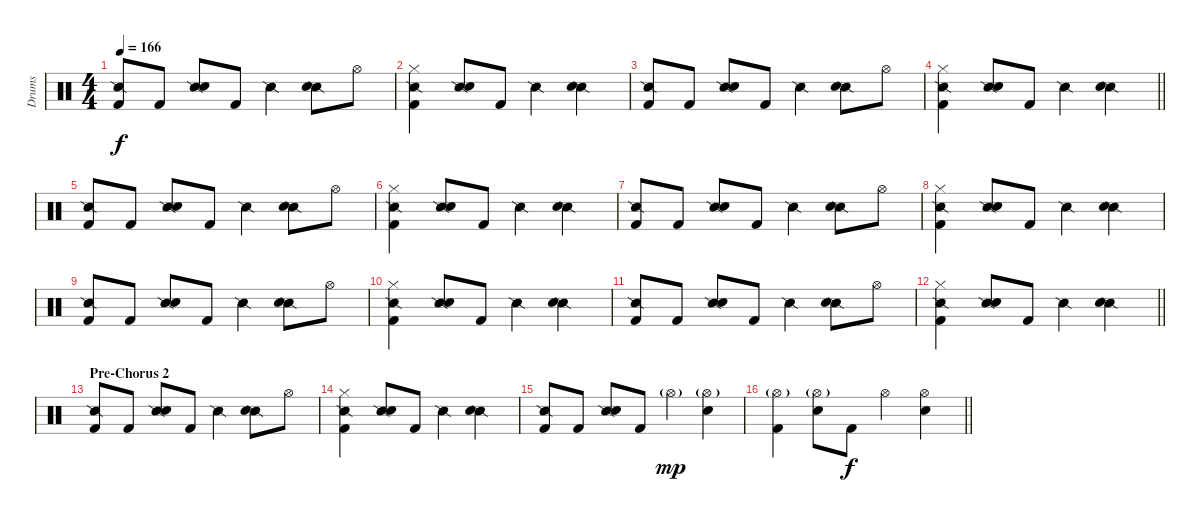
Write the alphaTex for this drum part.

\track ("Drums" "Drums") {instrument percussion}
\staff {score}
\articulation defaults
\ts (4 4)
\tempo 166
\clef neutral
\ks c
("Snare (side stick) 2" "Kick (hit) 2").8{dy f} "Kick (hit) 2".8 ("Snare (side stick) 2" "Electric Snare (hit)").8 "Kick (hit) 2".8 "Snare (side stick) 2".4 ("Snare (side stick) 2" "Electric Snare (hit)").8 "Hi-Hat (open)".8 |
("Snare (side stick) 2" "Hi-Hat (closed)" "Kick (hit) 2").4 ("Snare (side stick) 2" "Electric Snare (hit)").8 "Kick (hit) 2".8 "Snare (side stick) 2".4 ("Snare (side stick) 2" "Electric Snare (hit)").4 |
("Snare (side stick) 2" "Kick (hit) 2").8 "Kick (hit) 2".8 ("Snare (side stick) 2" "Electric Snare (hit)").8 "Kick (hit) 2".8 "Snare (side stick) 2".4 ("Snare (side stick) 2" "Electric Snare (hit)").8 "Hi-Hat (open)".8 |
\barLineRight lightlight
("Snare (side stick) 2" "Hi-Hat (closed)" "Kick (hit) 2").4 ("Snare (side stick) 2" "Electric Snare (hit)").8 "Kick (hit) 2".8 "Snare (side stick) 2".4 ("Snare (side stick) 2" "Electric Snare (hit)").4 |
("Snare (side stick) 2" "Kick (hit) 2").8 "Kick (hit) 2".8 ("Snare (side stick) 2" "Electric Snare (hit)").8 "Kick (hit) 2".8 "Snare (side stick) 2".4 ("Snare (side stick) 2" "Electric Snare (hit)").8 "Hi-Hat (open)".8 |
("Snare (side stick) 2" "Hi-Hat (closed)" "Kick (hit) 2").4 ("Snare (side stick) 2" "Electric Snare (hit)").8 "Kick (hit) 2".8 "Snare (side stick) 2".4 ("Snare (side stick) 2" "Electric Snare (hit)").4 |
("Snare (side stick) 2" "Kick (hit) 2").8 "Kick (hit) 2".8 ("Snare (side stick) 2" "Electric Snare (hit)").8 "Kick (hit) 2".8 "Snare (side stick) 2".4 ("Snare (side stick) 2" "Electric Snare (hit)").8 "Hi-Hat (open)".8 |
("Snare (side stick) 2" "Hi-Hat (closed)" "Kick (hit) 2").4 ("Snare (side stick) 2" "Electric Snare (hit)").8 "Kick (hit) 2".8 "Snare (side stick) 2".4 ("Snare (side stick) 2" "Electric Snare (hit)").4 |
("Snare (side stick) 2" "Kick (hit) 2").8 "Kick (hit) 2".8 ("Snare (side stick) 2" "Electric Snare (hit)").8 "Kick (hit) 2".8 "Snare (side stick) 2".4 ("Snare (side stick) 2" "Electric Snare (hit)").8 "Hi-Hat (open)".8 |
("Snare (side stick) 2" "Hi-Hat (closed)" "Kick (hit) 2").4 ("Snare (side stick) 2" "Electric Snare (hit)").8 "Kick (hit) 2".8 "Snare (side stick) 2".4 ("Snare (side stick) 2" "Electric Snare (hit)").4 |
("Snare (side stick) 2" "Kick (hit) 2").8 "Kick (hit) 2".8 ("Snare (side stick) 2" "Electric Snare (hit)").8 "Kick (hit) 2".8 "Snare (side stick) 2".4 ("Snare (side stick) 2" "Electric Snare (hit)").8 "Hi-Hat (open)".8 |
\barLineRight lightlight
("Snare (side stick) 2" "Hi-Hat (closed)" "Kick (hit) 2").4 ("Snare (side stick) 2" "Electric Snare (hit)").8 "Kick (hit) 2".8 "Snare (side stick) 2".4 ("Snare (side stick) 2" "Electric Snare (hit)").4 |
\section ("" "Pre-Chorus 2")
("Snare (side stick) 2" "Kick (hit) 2").8 "Kick (hit) 2".8 ("Snare (side stick) 2" "Electric Snare (hit)").8 "Kick (hit) 2".8 "Snare (side stick) 2".4 ("Snare (side stick) 2" "Electric Snare (hit)").8 "Hi-Hat (open)".8 |
("Snare (side stick) 2" "Hi-Hat (closed)" "Kick (hit) 2").4 ("Snare (side stick) 2" "Electric Snare (hit)").8 "Kick (hit) 2".8 "Snare (side stick) 2".4 ("Snare (side stick) 2" "Electric Snare (hit)").4 |
("Snare (side stick) 2" "Kick (hit) 2").8 "Kick (hit) 2".8 ("Snare (side stick) 2" "Electric Snare (hit)").8 "Kick (hit) 2".8 "Hi-Hat (open)"{g}.4{dy mp} ("Hi-Hat (open)"{g} "Electric Snare (hit)").4 |
\barLineRight lightlight
("Hi-Hat (open)"{g} "Kick (hit) 2").4 ("Hi-Hat (open)"{g} "Electric Snare (hit)").8 "Kick (hit) 2".8{dy f} "Hi-Hat (open)".4 ("Hi-Hat (open)" "Electric Snare (hit)").4
